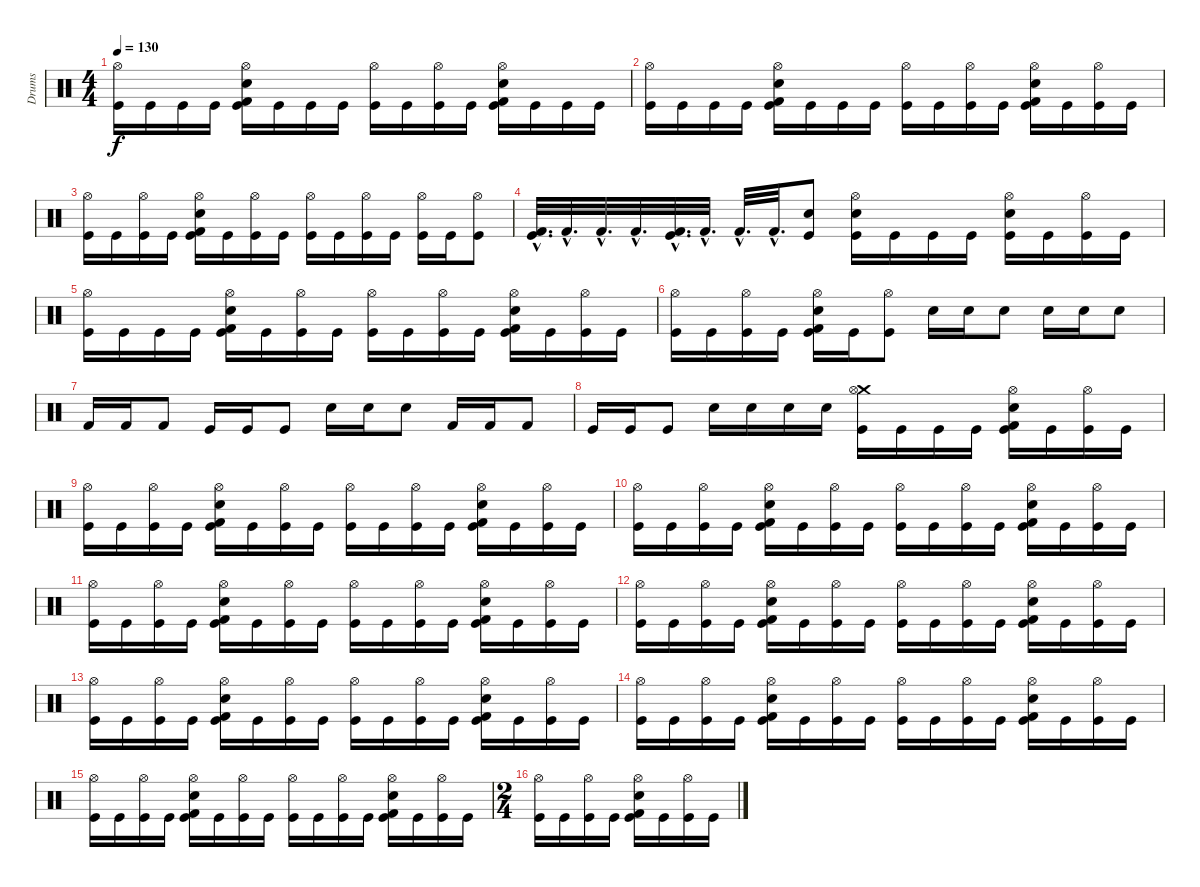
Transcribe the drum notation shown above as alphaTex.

\track ("Drums" "Drums") {instrument percussion}
\staff {score}
\articulation defaults
\ts (4 4)
\tempo 130
\clef neutral
\ks c
("Hi-Hat (open)" "Kick (hit)").16{dy f} "Kick (hit)".16 "Kick (hit)".16 "Kick (hit)".16 ("Kick (hit) 2" "Electric Snare (hit)" "Hi-Hat (open)" "Kick (hit)").16 "Kick (hit)".16 "Kick (hit)".16 "Kick (hit)".16 ("Hi-Hat (open)" "Kick (hit)").16 "Kick (hit)".16 ("Hi-Hat (open)" "Kick (hit)").16 "Kick (hit)".16 ("Kick (hit) 2" "Electric Snare (hit)" "Hi-Hat (open)" "Kick (hit)").16 "Kick (hit)".16 "Kick (hit)".16 "Kick (hit)".16 |
("Hi-Hat (open)" "Kick (hit)").16 "Kick (hit)".16 "Kick (hit)".16 "Kick (hit)".16 ("Kick (hit) 2" "Electric Snare (hit)" "Hi-Hat (open)" "Kick (hit)").16 "Kick (hit)".16 "Kick (hit)".16 "Kick (hit)".16 ("Hi-Hat (open)" "Kick (hit)").16 "Kick (hit)".16 ("Hi-Hat (open)" "Kick (hit)").16 "Kick (hit)".16 ("Kick (hit) 2" "Electric Snare (hit)" "Hi-Hat (open)" "Kick (hit)").16 "Kick (hit)".16 ("Hi-Hat (open)" "Kick (hit)").16 "Kick (hit)".16 |
("Hi-Hat (open)" "Kick (hit)").16 "Kick (hit)".16 ("Hi-Hat (open)" "Kick (hit)").16 "Kick (hit)".16 ("Kick (hit) 2" "Electric Snare (hit)" "Hi-Hat (open)" "Kick (hit)").16 "Kick (hit)".16 ("Hi-Hat (open)" "Kick (hit)").16 "Kick (hit)".16 ("Hi-Hat (open)" "Kick (hit)").16 "Kick (hit)".16 ("Hi-Hat (open)" "Kick (hit)").16 "Kick (hit)".16 ("Hi-Hat (open)" "Kick (hit)").16 "Kick (hit)".16 ("Hi-Hat (open)" "Kick (hit)").8 |
("Kick (hit) 2"{hac} "Kick (hit)"{hac}).32{d} "Kick (hit) 2"{hac}.32{d} "Kick (hit) 2"{hac}.32{d} "Kick (hit) 2"{hac}.32{d} ("Kick (hit) 2"{hac} "Kick (hit)"{hac}).32{d} "Kick (hit) 2"{hac}.32{d} "Kick (hit) 2"{hac}.32{d} "Kick (hit) 2"{hac}.32{d} ("Electric Snare (hit)" "Kick (hit)").8 ("Hi-Hat (open)" "Electric Snare (hit)" "Kick (hit)").16 "Kick (hit)".16 "Kick (hit)".16 "Kick (hit)".16 ("Electric Snare (hit)" "Hi-Hat (open)" "Kick (hit)").16 "Kick (hit)".16 ("Hi-Hat (open)" "Kick (hit)").16 "Kick (hit)".16 |
("Hi-Hat (open)" "Kick (hit)").16 "Kick (hit)".16 "Kick (hit)".16 "Kick (hit)".16 ("Kick (hit) 2" "Electric Snare (hit)" "Hi-Hat (open)" "Kick (hit)").16 "Kick (hit)".16 ("Hi-Hat (open)" "Kick (hit)").16 "Kick (hit)".16 ("Hi-Hat (open)" "Kick (hit)").16 "Kick (hit)".16 ("Hi-Hat (open)" "Kick (hit)").16 "Kick (hit)".16 ("Kick (hit) 2" "Electric Snare (hit)" "Hi-Hat (open)" "Kick (hit)").16 "Kick (hit)".16 ("Hi-Hat (open)" "Kick (hit)").16 "Kick (hit)".16 |
("Hi-Hat (open)" "Kick (hit)").16 "Kick (hit)".16 ("Hi-Hat (open)" "Kick (hit)").16 "Kick (hit)".16 ("Kick (hit) 2" "Electric Snare (hit)" "Hi-Hat (open)" "Kick (hit)").16 "Kick (hit)".16 ("Hi-Hat (open)" "Kick (hit)").8 "Snare (hit) 2".16 "Snare (hit) 2".16 "Snare (hit) 2".8 "Electric Snare (hit)".16 "Electric Snare (hit)".16 "Electric Snare (hit)".8 |
"Kick (hit) 2".16 "Kick (hit) 2".16 "Kick (hit) 2".8 "Kick (hit)".16 "Kick (hit)".16 "Kick (hit)".8 "Snare (hit) 2".16 "Snare (hit) 2".16 "Snare (hit) 2".8 "Kick (hit) 2".16 "Kick (hit) 2".16 "Kick (hit) 2".8 |
"Kick (hit)".16 "Kick (hit)".16 "Kick (hit)".8 "Electric Snare (hit)".16 "Electric Snare (hit)".16 "Electric Snare (hit)".16 "Electric Snare (hit)".16 ("Crash medium (hit)" "Hi-Hat (open)" "Kick (hit)").16 "Kick (hit)".16 "Kick (hit)".16 "Kick (hit)".16 ("Kick (hit) 2" "Electric Snare (hit)" "Hi-Hat (open)" "Kick (hit)").16 "Kick (hit)".16 ("Hi-Hat (open)" "Kick (hit)").16 "Kick (hit)".16 |
("Hi-Hat (open)" "Kick (hit)").16 "Kick (hit)".16 ("Hi-Hat (open)" "Kick (hit)").16 "Kick (hit)".16 ("Kick (hit) 2" "Electric Snare (hit)" "Hi-Hat (open)" "Kick (hit)").16 "Kick (hit)".16 ("Hi-Hat (open)" "Kick (hit)").16 "Kick (hit)".16 ("Hi-Hat (open)" "Kick (hit)").16 "Kick (hit)".16 ("Hi-Hat (open)" "Kick (hit)").16 "Kick (hit)".16 ("Kick (hit) 2" "Electric Snare (hit)" "Hi-Hat (open)" "Kick (hit)").16 "Kick (hit)".16 ("Hi-Hat (open)" "Kick (hit)").16 "Kick (hit)".16 |
("Hi-Hat (open)" "Kick (hit)").16 "Kick (hit)".16 ("Hi-Hat (open)" "Kick (hit)").16 "Kick (hit)".16 ("Kick (hit) 2" "Electric Snare (hit)" "Hi-Hat (open)" "Kick (hit)").16 "Kick (hit)".16 ("Hi-Hat (open)" "Kick (hit)").16 "Kick (hit)".16 ("Hi-Hat (open)" "Kick (hit)").16 "Kick (hit)".16 ("Hi-Hat (open)" "Kick (hit)").16 "Kick (hit)".16 ("Kick (hit) 2" "Electric Snare (hit)" "Hi-Hat (open)" "Kick (hit)").16 "Kick (hit)".16 ("Hi-Hat (open)" "Kick (hit)").16 "Kick (hit)".16 |
("Hi-Hat (open)" "Kick (hit)").16 "Kick (hit)".16 ("Hi-Hat (open)" "Kick (hit)").16 "Kick (hit)".16 ("Kick (hit) 2" "Electric Snare (hit)" "Hi-Hat (open)" "Kick (hit)").16 "Kick (hit)".16 ("Hi-Hat (open)" "Kick (hit)").16 "Kick (hit)".16 ("Hi-Hat (open)" "Kick (hit)").16 "Kick (hit)".16 ("Hi-Hat (open)" "Kick (hit)").16 "Kick (hit)".16 ("Kick (hit) 2" "Electric Snare (hit)" "Hi-Hat (open)" "Kick (hit)").16 "Kick (hit)".16 ("Hi-Hat (open)" "Kick (hit)").16 "Kick (hit)".16 |
("Hi-Hat (open)" "Kick (hit)").16 "Kick (hit)".16 ("Hi-Hat (open)" "Kick (hit)").16 "Kick (hit)".16 ("Kick (hit) 2" "Electric Snare (hit)" "Hi-Hat (open)" "Kick (hit)").16 "Kick (hit)".16 ("Hi-Hat (open)" "Kick (hit)").16 "Kick (hit)".16 ("Hi-Hat (open)" "Kick (hit)").16 "Kick (hit)".16 ("Hi-Hat (open)" "Kick (hit)").16 "Kick (hit)".16 ("Kick (hit) 2" "Electric Snare (hit)" "Hi-Hat (open)" "Kick (hit)").16 "Kick (hit)".16 ("Hi-Hat (open)" "Kick (hit)").16 "Kick (hit)".16 |
("Hi-Hat (open)" "Kick (hit)").16 "Kick (hit)".16 ("Hi-Hat (open)" "Kick (hit)").16 "Kick (hit)".16 ("Kick (hit) 2" "Electric Snare (hit)" "Hi-Hat (open)" "Kick (hit)").16 "Kick (hit)".16 ("Hi-Hat (open)" "Kick (hit)").16 "Kick (hit)".16 ("Hi-Hat (open)" "Kick (hit)").16 "Kick (hit)".16 ("Hi-Hat (open)" "Kick (hit)").16 "Kick (hit)".16 ("Kick (hit) 2" "Electric Snare (hit)" "Hi-Hat (open)" "Kick (hit)").16 "Kick (hit)".16 ("Hi-Hat (open)" "Kick (hit)").16 "Kick (hit)".16 |
("Hi-Hat (open)" "Kick (hit)").16 "Kick (hit)".16 ("Hi-Hat (open)" "Kick (hit)").16 "Kick (hit)".16 ("Kick (hit) 2" "Electric Snare (hit)" "Hi-Hat (open)" "Kick (hit)").16 "Kick (hit)".16 ("Hi-Hat (open)" "Kick (hit)").16 "Kick (hit)".16 ("Hi-Hat (open)" "Kick (hit)").16 "Kick (hit)".16 ("Hi-Hat (open)" "Kick (hit)").16 "Kick (hit)".16 ("Kick (hit) 2" "Electric Snare (hit)" "Hi-Hat (open)" "Kick (hit)").16 "Kick (hit)".16 ("Hi-Hat (open)" "Kick (hit)").16 "Kick (hit)".16 |
("Hi-Hat (open)" "Kick (hit)").16 "Kick (hit)".16 ("Hi-Hat (open)" "Kick (hit)").16 "Kick (hit)".16 ("Kick (hit) 2" "Electric Snare (hit)" "Hi-Hat (open)" "Kick (hit)").16 "Kick (hit)".16 ("Hi-Hat (open)" "Kick (hit)").16 "Kick (hit)".16 ("Hi-Hat (open)" "Kick (hit)").16 "Kick (hit)".16 ("Hi-Hat (open)" "Kick (hit)").16 "Kick (hit)".16 ("Kick (hit) 2" "Electric Snare (hit)" "Hi-Hat (open)" "Kick (hit)").16 "Kick (hit)".16 ("Hi-Hat (open)" "Kick (hit)").16 "Kick (hit)".16 |
\ts (2 4)
("Hi-Hat (open)" "Kick (hit)").16 "Kick (hit)".16 ("Hi-Hat (open)" "Kick (hit)").16 "Kick (hit)".16 ("Kick (hit) 2" "Electric Snare (hit)" "Hi-Hat (open)" "Kick (hit)").16 "Kick (hit)".16 ("Hi-Hat (open)" "Kick (hit)").16 "Kick (hit)".16
